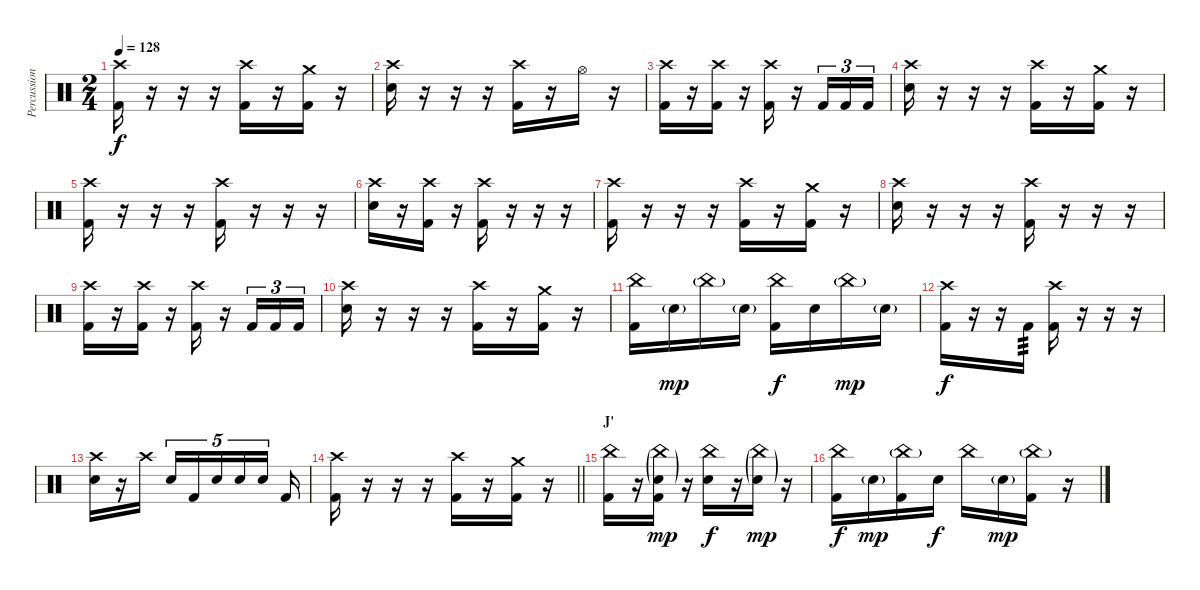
\track ("Percussion" "Percussion") {instrument percussion}
\staff {score}
\articulation defaults
\ts (2 4)
\tempo 128
\clef neutral
\ks c
("Crash high (hit)" "Kick (hit) 2").16{dy f} r.16 r.16 r.16 ("Crash high (hit)" "Kick (hit) 2").16 r.16 ("Crash medium (hit)" "Kick (hit) 2").16 r.16 |
("Crash high (hit)" "Snare (hit) 2").16 r.16 r.16 r.16 ("Crash high (hit)" "Kick (hit) 2").16 r.16 "Hi-Hat (open)".16 r.16 |
("Crash high (hit)" "Kick (hit) 2").16 r.16 ("Crash high (hit)" "Kick (hit) 2").16 r.16 ("Crash high (hit)" "Kick (hit) 2").16 r.16 "Kick (hit) 2".16{tu (3 2)} "Kick (hit) 2".16{tu (3 2)} "Kick (hit) 2".16{tu (3 2)} |
("Crash high (hit)" "Snare (hit) 2").16 r.16 r.16 r.16 ("Crash high (hit)" "Kick (hit) 2").16 r.16 ("Crash medium (hit)" "Kick (hit) 2").16 r.16 |
("Crash high (hit)" "Kick (hit) 2").16 r.16 r.16 r.16 ("Crash high (hit)" "Kick (hit) 2").16 r.16 r.16 r.16 |
("Crash high (hit)" "Snare (hit) 2").16 r.16 ("Crash high (hit)" "Kick (hit) 2").16 r.16 ("Crash high (hit)" "Kick (hit) 2").16 r.16 r.16 r.16 |
("Crash high (hit)" "Kick (hit) 2").16 r.16 r.16 r.16 ("Crash high (hit)" "Kick (hit) 2").16 r.16 ("Crash medium (hit)" "Kick (hit) 2").16 r.16 |
("Crash high (hit)" "Snare (hit) 2").16 r.16 r.16 r.16 ("Crash high (hit)" "Kick (hit) 2").16 r.16 r.16 r.16 |
("Crash high (hit)" "Kick (hit) 2").16 r.16 ("Crash high (hit)" "Kick (hit) 2").16 r.16 ("Crash high (hit)" "Kick (hit) 2").16 r.16 "Kick (hit) 2".16{tu (3 2)} "Kick (hit) 2".16{tu (3 2)} "Kick (hit) 2".16{tu (3 2)} |
("Crash high (hit)" "Snare (hit) 2").16 r.16 r.16 r.16 ("Crash high (hit)" "Kick (hit) 2").16 r.16 ("Crash medium (hit)" "Kick (hit) 2").16 r.16 |
("China (hit)" "Kick (hit) 2").16 "Snare (hit) 2"{g}.16{dy mp} "China (hit)"{g}.16 "Snare (hit) 2"{g}.16 ("China (hit)" "Kick (hit) 2").16{dy f} "Snare (hit) 2".16 "China (hit)"{g}.16{dy mp} "Snare (hit) 2"{g}.16 |
("Crash high (hit)" "Kick (hit) 2").16{dy f} r.16 r.16 "Kick (hit) 2".16{tp 3} ("Crash high (hit)" "Kick (hit) 2").16 r.16 r.16 r.16 |
("Crash high (hit)" "Snare (hit) 2").16 r.16 "Crash high (hit)".16{beam splitsecondary} "Snare (hit) 2".16{tu (5 4)} "Kick (hit) 2".16{tu (5 4)} "Snare (hit) 2".16{tu (5 4)} "Snare (hit) 2".16{tu (5 4)} "Snare (hit) 2".16{tu (5 4) beam splitsecondary} "Kick (hit) 2".16 |
\barLineRight lightlight
("Crash high (hit)" "Kick (hit) 2").16 r.16 r.16 r.16 ("Crash high (hit)" "Kick (hit) 2").16 r.16 ("Crash medium (hit)" "Kick (hit) 2").16 r.16 |
\section ("" "J'")
("China (hit)" "Kick (hit) 2").16 r.16 ("China (hit)"{g} "Snare (hit) 2"{g} "Kick (hit) 2").16{dy mp} r.16 ("China (hit)" "Snare (hit) 2").16{dy f} r.16 ("China (hit)"{g} "Snare (hit) 2"{g}).16{dy mp} r.16 |
("China (hit)" "Kick (hit) 2").16{dy f} "Snare (hit) 2"{g}.16{dy mp} ("China (hit)"{g} "Kick (hit) 2").16 "Snare (hit) 2".16{dy f} "China (hit)".16 "Snare (hit) 2"{g}.16{dy mp} ("China (hit)"{g} "Kick (hit) 2").16 r.16
